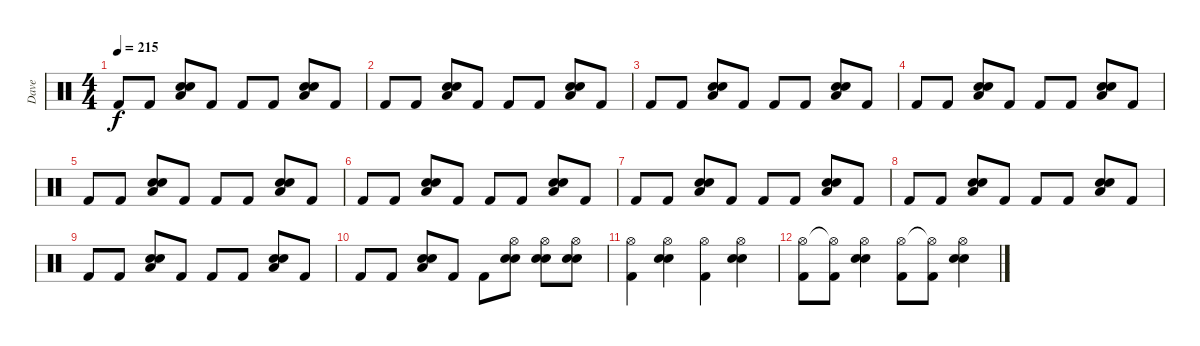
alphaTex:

\track ("Dave" "Dave") {instrument percussion}
\staff {score}
\articulation defaults
\ts (4 4)
\tempo 215
\clef neutral
\ks c "Kick (hit) 2".8{dy f} "Kick (hit) 2".8
("Low Floor Tom (hit)" "Electric Snare (hit)" "Electric Snare (hit)").8 "Kick (hit) 2".8 "Kick (hit) 2".8 "Kick (hit) 2".8 ("Low Floor Tom (hit)" "Electric Snare (hit)" "Electric Snare (hit)").8 "Kick (hit) 2".8 |
"Kick (hit) 2".8 "Kick (hit) 2".8 ("Low Floor Tom (hit)" "Electric Snare (hit)" "Electric Snare (hit)").8 "Kick (hit) 2".8 "Kick (hit) 2".8 "Kick (hit) 2".8 ("Low Floor Tom (hit)" "Electric Snare (hit)" "Electric Snare (hit)").8 "Kick (hit) 2".8 |
"Kick (hit) 2".8 "Kick (hit) 2".8 ("Low Floor Tom (hit)" "Electric Snare (hit)" "Electric Snare (hit)").8 "Kick (hit) 2".8 "Kick (hit) 2".8 "Kick (hit) 2".8 ("Low Floor Tom (hit)" "Electric Snare (hit)" "Electric Snare (hit)").8 "Kick (hit) 2".8 |
"Kick (hit) 2".8 "Kick (hit) 2".8 ("Low Floor Tom (hit)" "Electric Snare (hit)" "Electric Snare (hit)").8 "Kick (hit) 2".8 "Kick (hit) 2".8 "Kick (hit) 2".8 ("Low Floor Tom (hit)" "Electric Snare (hit)" "Electric Snare (hit)").8 "Kick (hit) 2".8 |
"Kick (hit) 2".8 "Kick (hit) 2".8 ("Low Floor Tom (hit)" "Electric Snare (hit)" "Electric Snare (hit)").8 "Kick (hit) 2".8 "Kick (hit) 2".8 "Kick (hit) 2".8 ("Low Floor Tom (hit)" "Electric Snare (hit)" "Electric Snare (hit)").8 "Kick (hit) 2".8 |
"Kick (hit) 2".8 "Kick (hit) 2".8 ("Low Floor Tom (hit)" "Electric Snare (hit)" "Electric Snare (hit)").8 "Kick (hit) 2".8 "Kick (hit) 2".8 "Kick (hit) 2".8 ("Low Floor Tom (hit)" "Electric Snare (hit)" "Electric Snare (hit)").8 "Kick (hit) 2".8 |
"Kick (hit) 2".8 "Kick (hit) 2".8 ("Low Floor Tom (hit)" "Electric Snare (hit)" "Electric Snare (hit)").8 "Kick (hit) 2".8 "Kick (hit) 2".8 "Kick (hit) 2".8 ("Low Floor Tom (hit)" "Electric Snare (hit)" "Electric Snare (hit)").8 "Kick (hit) 2".8 |
"Kick (hit) 2".8 "Kick (hit) 2".8 ("Low Floor Tom (hit)" "Electric Snare (hit)" "Electric Snare (hit)").8 "Kick (hit) 2".8 "Kick (hit) 2".8 "Kick (hit) 2".8 ("Low Floor Tom (hit)" "Electric Snare (hit)" "Electric Snare (hit)").8 "Kick (hit) 2".8 |
"Kick (hit) 2".8 "Kick (hit) 2".8 ("Low Floor Tom (hit)" "Electric Snare (hit)" "Electric Snare (hit)").8 "Kick (hit) 2".8 "Kick (hit) 2".8 "Kick (hit) 2".8 ("Low Floor Tom (hit)" "Electric Snare (hit)" "Electric Snare (hit)").8 "Kick (hit) 2".8 |
"Kick (hit) 2".8 "Kick (hit) 2".8 ("Low Floor Tom (hit)" "Electric Snare (hit)" "Electric Snare (hit)").8 "Kick (hit) 2".8 "Kick (hit) 2".8 ("Hi-Hat (open)" "Electric Snare (hit)" "Electric Snare (hit)").8 ("Hi-Hat (open)" "Electric Snare (hit)" "Electric Snare (hit)").8 ("Hi-Hat (open)" "Electric Snare (hit)" "Electric Snare (hit)").8 |
("Hi-Hat (open)" "Kick (hit) 2").4 ("Hi-Hat (open)" "Electric Snare (hit)" "Electric Snare (hit)").4 ("Hi-Hat (open)" "Kick (hit) 2").4 ("Hi-Hat (open)" "Electric Snare (hit)" "Electric Snare (hit)").4 |
("Hi-Hat (open)" "Kick (hit) 2").8 ("Hi-Hat (open)"{t} "Kick (hit) 2").8 ("Hi-Hat (open)" "Electric Snare (hit)" "Electric Snare (hit)").4 ("Hi-Hat (open)" "Kick (hit) 2").8 ("Hi-Hat (open)"{t} "Kick (hit) 2").8 ("Hi-Hat (open)" "Electric Snare (hit)" "Electric Snare (hit)").4
